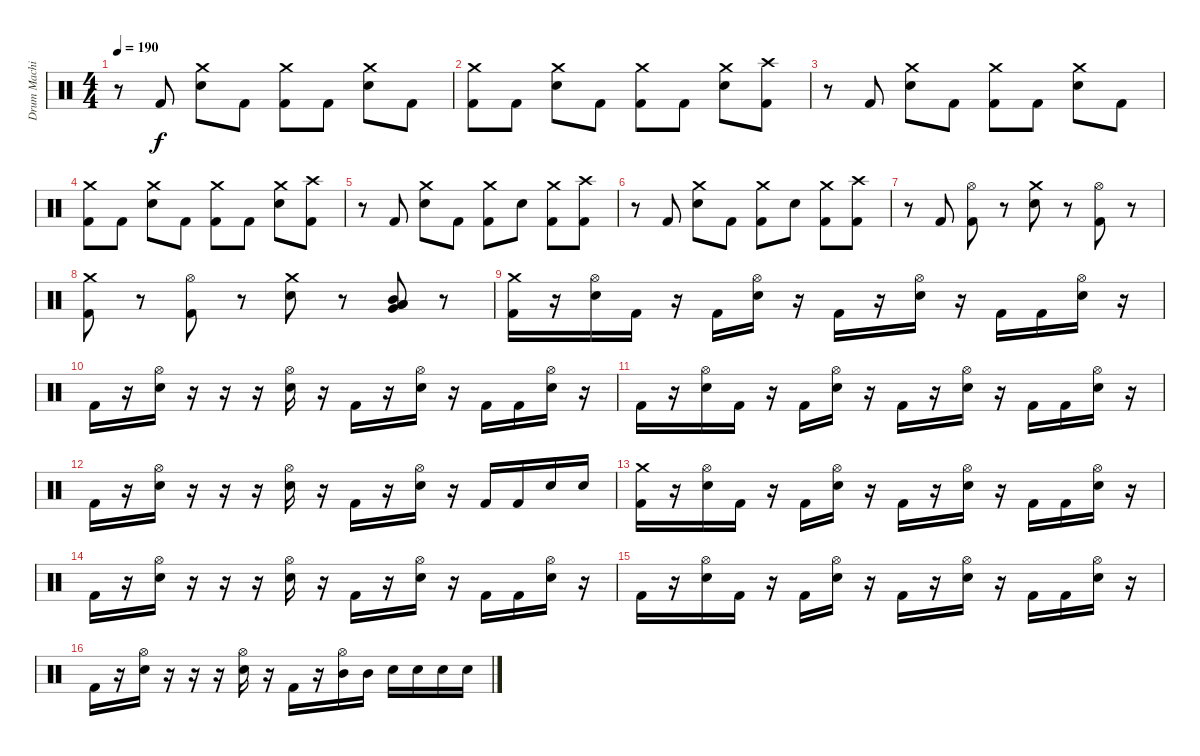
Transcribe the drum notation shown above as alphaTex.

\track ("Drum Machine Man" "Drum Machi") {instrument percussion}
\staff {score}
\articulation defaults
\ts (4 4)
\tempo 190
\clef neutral
\ks c
r.8{dy f} "Kick (hit) 2".8 ("Crash medium (hit)" "Electric Snare (hit)").8 "Kick (hit) 2".8 ("Crash medium (hit)" "Kick (hit) 2").8 "Kick (hit) 2".8 ("Crash medium (hit)" "Electric Snare (hit)").8 "Kick (hit) 2".8 |
("Crash medium (hit)" "Kick (hit) 2").8 "Kick (hit) 2".8 ("Crash medium (hit)" "Electric Snare (hit)").8 "Kick (hit) 2".8 ("Crash medium (hit)" "Kick (hit) 2").8 "Kick (hit) 2".8 ("Crash medium (hit)" "Electric Snare (hit)").8 ("Crash high (hit)" "Kick (hit) 2").8 |
r.8 "Kick (hit) 2".8 ("Crash medium (hit)" "Electric Snare (hit)").8 "Kick (hit) 2".8 ("Crash medium (hit)" "Kick (hit) 2").8 "Kick (hit) 2".8 ("Crash medium (hit)" "Electric Snare (hit)").8 "Kick (hit) 2".8 |
("Crash medium (hit)" "Kick (hit) 2").8 "Kick (hit) 2".8 ("Crash medium (hit)" "Electric Snare (hit)").8 "Kick (hit) 2".8 ("Crash medium (hit)" "Kick (hit) 2").8 "Kick (hit) 2".8 ("Crash medium (hit)" "Electric Snare (hit)").8 ("Crash high (hit)" "Kick (hit) 2").8 |
r.8 "Kick (hit) 2".8 ("Crash medium (hit)" "Electric Snare (hit)").8 "Kick (hit) 2".8 ("Crash medium (hit)" "Kick (hit) 2").8 "Electric Snare (hit)".8 ("Crash medium (hit)" "Kick (hit) 2").8 ("Crash high (hit)" "Kick (hit) 2").8 |
r.8 "Kick (hit) 2".8 ("Crash medium (hit)" "Electric Snare (hit)").8 "Kick (hit) 2".8 ("Crash medium (hit)" "Kick (hit) 2").8 "Electric Snare (hit)".8 ("Crash medium (hit)" "Kick (hit) 2").8 ("Crash high (hit)" "Kick (hit) 2").8 |
r.8 "Kick (hit) 2".8 ("Hi-Hat (open)" "Kick (hit) 2").8 r.8 ("Crash medium (hit)" "Electric Snare (hit)").8 r.8 ("Hi-Hat (open)" "Kick (hit) 2").8 r.8 |
("Crash medium (hit)" "Kick (hit) 2").8 r.8 ("Hi-Hat (open)" "Kick (hit) 2").8 r.8 ("Crash medium (hit)" "Electric Snare (hit)").8 r.8 ("Mid Tom (hit)" "Low Tom (hit)" "Very Low Tom (hit)" "Low Floor Tom (hit)").8{bd 60} r.8 |
("Kick (hit) 2" "Crash medium (hit)").16 r.16 ("Hi-Hat (open)" "Electric Snare (hit)").16 "Kick (hit) 2".16 r.16 "Kick (hit) 2".16 ("Hi-Hat (open)" "Electric Snare (hit)").16 r.16 "Kick (hit) 2".16 r.16 ("Hi-Hat (open)" "Electric Snare (hit)").16 r.16 "Kick (hit) 2".16 "Kick (hit) 2".16 ("Hi-Hat (open)" "Electric Snare (hit)").16 r.16 |
"Kick (hit) 2".16 r.16 ("Hi-Hat (open)" "Electric Snare (hit)").16 r.16 r.16 r.16 ("Hi-Hat (open)" "Electric Snare (hit)").16 r.16 "Kick (hit) 2".16 r.16 ("Hi-Hat (open)" "Electric Snare (hit)").16 r.16 "Kick (hit) 2".16 "Kick (hit) 2".16 ("Hi-Hat (open)" "Electric Snare (hit)").16 r.16 |
"Kick (hit) 2".16 r.16 ("Hi-Hat (open)" "Electric Snare (hit)").16 "Kick (hit) 2".16 r.16 "Kick (hit) 2".16 ("Hi-Hat (open)" "Electric Snare (hit)").16 r.16 "Kick (hit) 2".16 r.16 ("Hi-Hat (open)" "Electric Snare (hit)").16 r.16 "Kick (hit) 2".16 "Kick (hit) 2".16 ("Hi-Hat (open)" "Electric Snare (hit)").16 r.16 |
"Kick (hit) 2".16 r.16 ("Hi-Hat (open)" "Electric Snare (hit)").16 r.16 r.16 r.16 ("Hi-Hat (open)" "Electric Snare (hit)").16 r.16 "Kick (hit) 2".16 r.16 ("Hi-Hat (open)" "Electric Snare (hit)").16 r.16 "Kick (hit) 2".16 "Kick (hit) 2".16 "Electric Snare (hit)".16 "Electric Snare (hit)".16 |
("Kick (hit) 2" "Crash medium (hit)").16 r.16 ("Hi-Hat (open)" "Electric Snare (hit)").16 "Kick (hit) 2".16 r.16 "Kick (hit) 2".16 ("Hi-Hat (open)" "Electric Snare (hit)").16 r.16 "Kick (hit) 2".16 r.16 ("Hi-Hat (open)" "Electric Snare (hit)").16 r.16 "Kick (hit) 2".16 "Kick (hit) 2".16 ("Hi-Hat (open)" "Electric Snare (hit)").16 r.16 |
"Kick (hit) 2".16 r.16 ("Hi-Hat (open)" "Electric Snare (hit)").16 r.16 r.16 r.16 ("Hi-Hat (open)" "Electric Snare (hit)").16 r.16 "Kick (hit) 2".16 r.16 ("Hi-Hat (open)" "Electric Snare (hit)").16 r.16 "Kick (hit) 2".16 "Kick (hit) 2".16 ("Hi-Hat (open)" "Electric Snare (hit)").16 r.16 |
"Kick (hit) 2".16 r.16 ("Hi-Hat (open)" "Electric Snare (hit)").16 "Kick (hit) 2".16 r.16 "Kick (hit) 2".16 ("Hi-Hat (open)" "Electric Snare (hit)").16 r.16 "Kick (hit) 2".16 r.16 ("Hi-Hat (open)" "Electric Snare (hit)").16 r.16 "Kick (hit) 2".16 "Kick (hit) 2".16 ("Hi-Hat (open)" "Electric Snare (hit)").16 r.16 |
"Kick (hit) 2".16 r.16 ("Hi-Hat (open)" "Electric Snare (hit)").16 r.16 r.16 r.16 ("Hi-Hat (open)" "Electric Snare (hit)").16 r.16 "Kick (hit) 2".16 r.16 ("Hi-Hat (open)" "Mid Tom (hit)").16 "Mid Tom (hit)".16 "Electric Snare (hit)".16 "Electric Snare (hit)".16 "Electric Snare (hit)".16 "Electric Snare (hit)".16
